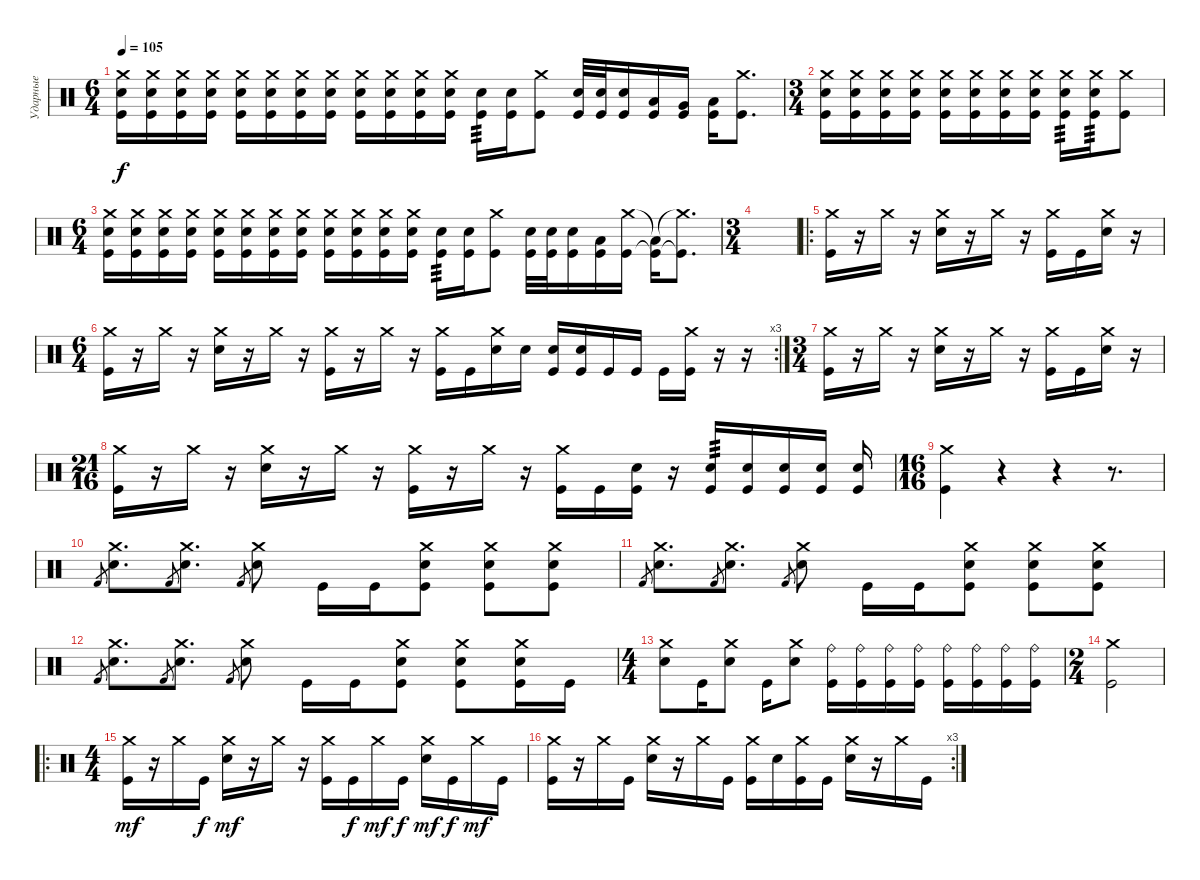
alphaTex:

\track ("Ударные" "Ударные") {instrument percussion}
\staff {score}
\articulation defaults
\ts (6 4)
\tempo 105
\clef neutral
\ks c
("Crash medium (hit)" "Electric Snare (hit)" "Kick (hit)").16{dy f} ("Crash medium (hit)" "Electric Snare (hit)" "Kick (hit)").16 ("Crash medium (hit)" "Electric Snare (hit)" "Kick (hit)").16 ("Crash medium (hit)" "Electric Snare (hit)" "Kick (hit)").16 ("Crash medium (hit)" "Electric Snare (hit)" "Kick (hit)").16 ("Crash medium (hit)" "Electric Snare (hit)" "Kick (hit)").16 ("Crash medium (hit)" "Electric Snare (hit)" "Kick (hit)").16 ("Crash medium (hit)" "Electric Snare (hit)" "Kick (hit)").16 ("Crash medium (hit)" "Electric Snare (hit)" "Kick (hit)").16 ("Crash medium (hit)" "Electric Snare (hit)" "Kick (hit)").16 ("Crash medium (hit)" "Electric Snare (hit)" "Kick (hit)").16 ("Crash medium (hit)" "Electric Snare (hit)" "Kick (hit)").16 ("Electric Snare (hit)" "Kick (hit)").16{tp 3} ("Electric Snare (hit)" "Kick (hit)").16 ("Crash medium (hit)" "Kick (hit)").8 ("Electric Snare (hit)" "Kick (hit)").32 ("Electric Snare (hit)" "Kick (hit)").32 ("Electric Snare (hit)" "Kick (hit)").16 ("Low Tom (hit)" "Kick (hit)").16 ("Very Low Tom (hit)" "Kick (hit)").16 ("Low Floor Tom (hit)" "Kick (hit)").16 ("Crash medium (hit)" "Kick (hit)").8{d} |
\ts (3 4)
("Crash medium (hit)" "Electric Snare (hit)" "Kick (hit)").16 ("Crash medium (hit)" "Electric Snare (hit)" "Kick (hit)").16 ("Crash medium (hit)" "Electric Snare (hit)" "Kick (hit)").16 ("Crash medium (hit)" "Electric Snare (hit)" "Kick (hit)").16 ("Crash medium (hit)" "Electric Snare (hit)" "Kick (hit)").16 ("Crash medium (hit)" "Electric Snare (hit)" "Kick (hit)").16 ("Crash medium (hit)" "Electric Snare (hit)" "Kick (hit)").16 ("Crash medium (hit)" "Electric Snare (hit)" "Kick (hit)").16 ("Crash medium (hit)" "Electric Snare (hit)" "Kick (hit)").16{tp 3} ("Crash medium (hit)" "Electric Snare (hit)" "Kick (hit)").16{tp 3} ("Crash medium (hit)" "Kick (hit)").8 |
\ts (6 4)
("Crash medium (hit)" "Electric Snare (hit)" "Kick (hit)").16 ("Crash medium (hit)" "Electric Snare (hit)" "Kick (hit)").16 ("Crash medium (hit)" "Electric Snare (hit)" "Kick (hit)").16 ("Crash medium (hit)" "Electric Snare (hit)" "Kick (hit)").16 ("Crash medium (hit)" "Electric Snare (hit)" "Kick (hit)").16 ("Crash medium (hit)" "Electric Snare (hit)" "Kick (hit)").16 ("Crash medium (hit)" "Electric Snare (hit)" "Kick (hit)").16 ("Crash medium (hit)" "Electric Snare (hit)" "Kick (hit)").16 ("Crash medium (hit)" "Electric Snare (hit)" "Kick (hit)").16 ("Crash medium (hit)" "Electric Snare (hit)" "Kick (hit)").16 ("Crash medium (hit)" "Electric Snare (hit)" "Kick (hit)").16 ("Crash medium (hit)" "Electric Snare (hit)" "Kick (hit)").16 ("Electric Snare (hit)" "Kick (hit)").16{tp 3} ("Electric Snare (hit)" "Kick (hit)").16 ("Crash medium (hit)" "Kick (hit)").8 ("Electric Snare (hit)" "Kick (hit)").32 ("Electric Snare (hit)" "Kick (hit)").32 ("Electric Snare (hit)" "Kick (hit)").16 ("Low Tom (hit)" "Kick (hit)").16 ("Crash medium (hit)" "Kick (hit)").16 ("Low Floor Tom (hit)"{t} "Kick (hit)"{t}).16 ("Crash medium (hit)"{t} "Kick (hit)"{t}).8{d} |
\ts (3 4)
|
\ro
("Crash medium (hit)" "Kick (hit)").16 r.16 "Crash medium (hit)".16 r.16 ("Crash medium (hit)" "Electric Snare (hit)").16 r.16 "Crash medium (hit)".16 r.16 ("Crash medium (hit)" "Kick (hit)").16 "Kick (hit)".16 ("Crash medium (hit)" "Electric Snare (hit)").16 r.16 |
\rc 3
\ts (6 4)
("Crash medium (hit)" "Kick (hit)").16 r.16 "Crash medium (hit)".16 r.16 ("Crash medium (hit)" "Electric Snare (hit)").16 r.16 "Crash medium (hit)".16 r.16 ("Crash medium (hit)" "Kick (hit)").16 r.16 "Crash medium (hit)".16 r.16 ("Crash medium (hit)" "Kick (hit)").16 "Kick (hit)".16 ("Crash medium (hit)" "Electric Snare (hit)").16 "Electric Snare (hit)".16 ("Electric Snare (hit)" "Kick (hit)").16 ("Electric Snare (hit)" "Kick (hit)").16 "Kick (hit)".16 "Kick (hit)".16 "Kick (hit)".16 ("Crash medium (hit)" "Kick (hit)").16 r.16 r.16 |
\ts (3 4)
("Crash medium (hit)" "Kick (hit)").16 r.16 "Crash medium (hit)".16 r.16 ("Crash medium (hit)" "Electric Snare (hit)").16 r.16 "Crash medium (hit)".16 r.16 ("Crash medium (hit)" "Kick (hit)").16 "Kick (hit)".16 ("Crash medium (hit)" "Electric Snare (hit)").16 r.16 |
\ts (21 16)
("Crash medium (hit)" "Kick (hit)").16 r.16 "Crash medium (hit)".16 r.16 ("Crash medium (hit)" "Electric Snare (hit)").16 r.16 "Crash medium (hit)".16 r.16 ("Crash medium (hit)" "Kick (hit)").16 r.16 "Crash medium (hit)".16 r.16 ("Crash medium (hit)" "Kick (hit)").16 "Kick (hit)".16 ("Electric Snare (hit)" "Kick (hit)").16 r.16 ("Electric Snare (hit)" "Kick (hit)").16{tp 3} ("Electric Snare (hit)" "Kick (hit)").16 ("Electric Snare (hit)" "Kick (hit)").16 ("Electric Snare (hit)" "Kick (hit)").16 ("Electric Snare (hit)" "Kick (hit)").16 |
\ts (16 16)
("Crash medium (hit)" "Kick (hit)").4 r.4 r.4 r.8{d} |
"Kick (hit) 2".8{gr} ("Crash medium (hit)" "Electric Snare (hit)").8{d} "Kick (hit) 2".8{gr} ("Crash medium (hit)" "Electric Snare (hit)").8{d} "Kick (hit) 2".8{gr} ("Crash medium (hit)" "Electric Snare (hit)").8 "Kick (hit)".16 "Kick (hit)".16 ("Crash medium (hit)" "Electric Snare (hit)" "Kick (hit)").8 ("Crash medium (hit)" "Electric Snare (hit)" "Kick (hit)").8 ("Crash medium (hit)" "Electric Snare (hit)" "Kick (hit)").8 |
"Kick (hit) 2".8{gr} ("Crash medium (hit)" "Electric Snare (hit)").8{d} "Kick (hit) 2".8{gr} ("Crash medium (hit)" "Electric Snare (hit)").8{d} "Kick (hit) 2".8{gr} ("Crash medium (hit)" "Electric Snare (hit)").8 "Kick (hit)".16 "Kick (hit)".16 ("Crash medium (hit)" "Electric Snare (hit)" "Kick (hit)").8 ("Crash medium (hit)" "Electric Snare (hit)" "Kick (hit)").8 ("Crash medium (hit)" "Electric Snare (hit)" "Kick (hit)").8 |
"Kick (hit) 2".8{gr} ("Crash medium (hit)" "Electric Snare (hit)").8{d} "Kick (hit) 2".8{gr} ("Crash medium (hit)" "Electric Snare (hit)").8{d} "Kick (hit) 2".8{gr} ("Crash medium (hit)" "Electric Snare (hit)").8 "Kick (hit)".16 "Kick (hit)".16 ("Crash medium (hit)" "Electric Snare (hit)" "Kick (hit)").8 ("Crash medium (hit)" "Electric Snare (hit)" "Kick (hit)").8 ("Crash medium (hit)" "Electric Snare (hit)" "Kick (hit)").16 "Kick (hit)".16 |
\ts (4 4)
("Crash medium (hit)" "Electric Snare (hit)").8 "Kick (hit)".16 ("Crash medium (hit)" "Electric Snare (hit)").8 "Kick (hit)".16 ("Crash medium (hit)" "Electric Snare (hit)").8 ("Ride (bell)" "Kick (hit)").16 ("Ride (bell)" "Kick (hit)").16 ("Ride (bell)" "Kick (hit)").16 ("Ride (bell)" "Kick (hit)").16 ("Ride (bell)" "Kick (hit)").16 ("Ride (bell)" "Kick (hit)").16 ("Ride (bell)" "Kick (hit)").16 ("Ride (bell)" "Kick (hit)").16 |
\ts (2 4)
("Crash medium (hit)" "Kick (hit)").2 |
\ro
\ts (4 4)
("Crash medium (hit)" "Kick (hit)").16{dy mf} r.16 "Crash medium (hit)".16 "Kick (hit)".16{dy f} ("Crash medium (hit)" "Electric Snare (hit)").16{dy mf} r.16 "Crash medium (hit)".16 r.16 ("Crash medium (hit)" "Kick (hit)").16 "Kick (hit)".16{dy f} "Crash medium (hit)".16{dy mf} "Kick (hit)".16{dy f} ("Crash medium (hit)" "Electric Snare (hit)").16{dy mf} "Kick (hit)".16{dy f} "Crash medium (hit)".16{dy mf} "Kick (hit)".16 |
\rc 3
("Crash medium (hit)" "Kick (hit)").16 r.16 "Crash medium (hit)".16 "Kick (hit)".16 ("Crash medium (hit)" "Electric Snare (hit)").16 r.16 "Crash medium (hit)".16 "Kick (hit)".16 ("Crash medium (hit)" "Kick (hit)").16 "Electric Snare (hit)".16 ("Crash medium (hit)" "Kick (hit)").16 "Kick (hit)".16 ("Crash medium (hit)" "Electric Snare (hit)").16 r.16 "Crash medium (hit)".16 "Kick (hit)".16
